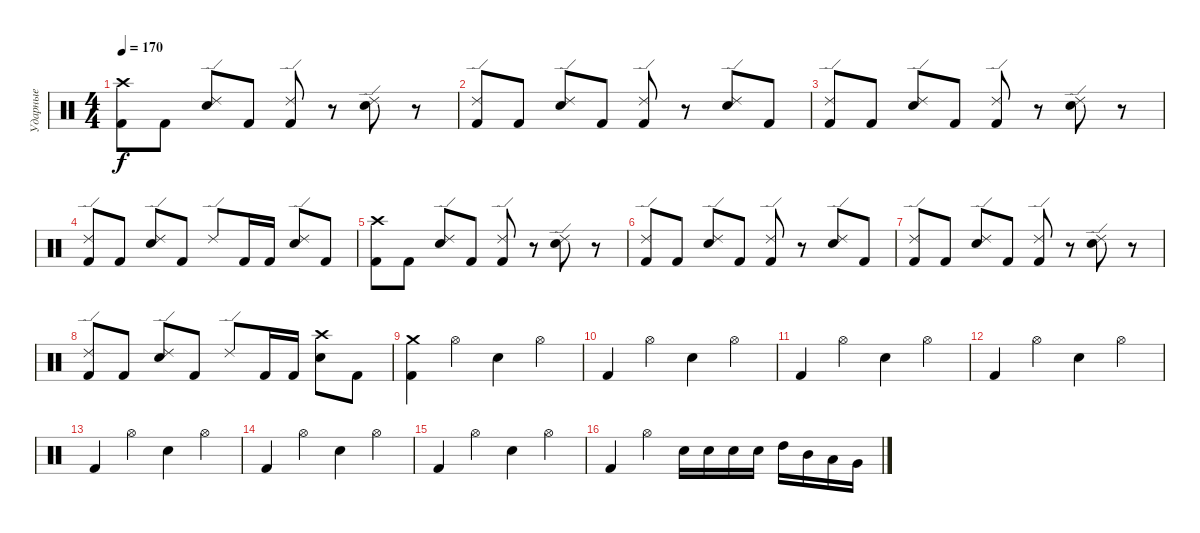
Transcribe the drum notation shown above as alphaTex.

\track ("Ударные" "Ударные") {instrument percussion}
\staff {score}
\articulation defaults
\ts (4 4)
\tempo 170
\clef neutral
\ks c
("Crash high (hit)" "Kick (hit) 2").8{dy f} "Kick (hit) 2".8 ("Ride (edge) 2" "Electric Snare (hit)").8 "Kick (hit) 2".8 ("Ride (edge) 2" "Kick (hit) 2").8 r.8 ("Ride (edge) 2" "Electric Snare (hit)").8 r.8 |
("Ride (edge) 2" "Kick (hit) 2").8 "Kick (hit) 2".8 ("Ride (edge) 2" "Electric Snare (hit)").8 "Kick (hit) 2".8 ("Ride (edge) 2" "Kick (hit) 2").8 r.8 ("Ride (edge) 2" "Electric Snare (hit)").8 "Kick (hit) 2".8 |
("Ride (edge) 2" "Kick (hit) 2").8 "Kick (hit) 2".8 ("Ride (edge) 2" "Electric Snare (hit)").8 "Kick (hit) 2".8 ("Ride (edge) 2" "Kick (hit) 2").8 r.8 ("Ride (edge) 2" "Electric Snare (hit)").8 r.8 |
("Ride (edge) 2" "Kick (hit) 2").8 "Kick (hit) 2".8 ("Ride (edge) 2" "Electric Snare (hit)").8 "Kick (hit) 2".8 "Ride (edge) 2".8 "Kick (hit) 2".16 "Kick (hit) 2".16 ("Ride (edge) 2" "Electric Snare (hit)").8 "Kick (hit) 2".8 |
("Crash high (hit)" "Kick (hit) 2").8 "Kick (hit) 2".8 ("Ride (edge) 2" "Electric Snare (hit)").8 "Kick (hit) 2".8 ("Ride (edge) 2" "Kick (hit) 2").8 r.8 ("Ride (edge) 2" "Electric Snare (hit)").8 r.8 |
("Ride (edge) 2" "Kick (hit) 2").8 "Kick (hit) 2".8 ("Ride (edge) 2" "Electric Snare (hit)").8 "Kick (hit) 2".8 ("Ride (edge) 2" "Kick (hit) 2").8 r.8 ("Ride (edge) 2" "Electric Snare (hit)").8 "Kick (hit) 2".8 |
("Ride (edge) 2" "Kick (hit) 2").8 "Kick (hit) 2".8 ("Ride (edge) 2" "Electric Snare (hit)").8 "Kick (hit) 2".8 ("Ride (edge) 2" "Kick (hit) 2").8 r.8 ("Ride (edge) 2" "Electric Snare (hit)").8 r.8 |
("Ride (edge) 2" "Kick (hit) 2").8 "Kick (hit) 2".8 ("Ride (edge) 2" "Electric Snare (hit)").8 "Kick (hit) 2".8 "Ride (edge) 2".8 "Kick (hit) 2".16 "Kick (hit) 2".16 ("Crash high (hit)" "Electric Snare (hit)").8 "Kick (hit) 2".8 |
("Crash medium (hit)" "Kick (hit) 2").4 "Hi-Hat (open)".4 "Electric Snare (hit)".4 "Hi-Hat (open)".4 |
"Kick (hit) 2".4 "Hi-Hat (open)".4 "Electric Snare (hit)".4 "Hi-Hat (open)".4 |
"Kick (hit) 2".4 "Hi-Hat (open)".4 "Electric Snare (hit)".4 "Hi-Hat (open)".4 |
"Kick (hit) 2".4 "Hi-Hat (open)".4 "Electric Snare (hit)".4 "Hi-Hat (open)".4 |
"Kick (hit) 2".4 "Hi-Hat (open)".4 "Electric Snare (hit)".4 "Hi-Hat (open)".4 |
"Kick (hit) 2".4 "Hi-Hat (open)".4 "Electric Snare (hit)".4 "Hi-Hat (open)".4 |
"Kick (hit) 2".4 "Hi-Hat (open)".4 "Electric Snare (hit)".4 "Hi-Hat (open)".4 |
"Kick (hit) 2".4 "Hi-Hat (open)".4 "Electric Snare (hit)".16 "Electric Snare (hit)".16 "Electric Snare (hit)".16 "Electric Snare (hit)".16 "High Tom (hit)".16 "Mid Tom (hit)".16 "Low Tom (hit)".16 "Very Low Tom (hit)".16
